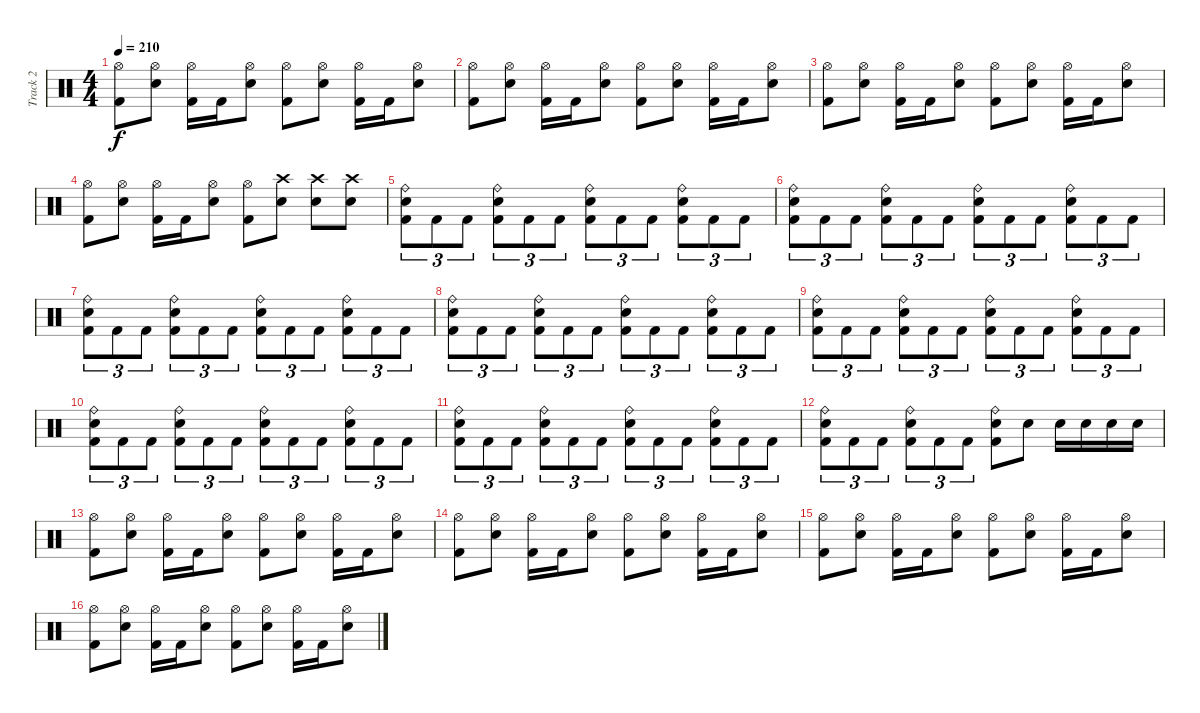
\track ("Track 2" "Track 2") {instrument percussion}
\staff {score}
\articulation defaults
\ts (4 4)
\tempo 210
\clef neutral
\ks c
("Hi-Hat (open)" "Kick (hit) 2").8{dy f} ("Hi-Hat (open)" "Snare (hit) 2").8 ("Hi-Hat (open)" "Kick (hit) 2").16 "Kick (hit) 2".16 ("Hi-Hat (open)" "Snare (hit) 2").8 ("Hi-Hat (open)" "Kick (hit) 2").8 ("Hi-Hat (open)" "Snare (hit) 2").8 ("Hi-Hat (open)" "Kick (hit) 2").16 "Kick (hit) 2".16 ("Hi-Hat (open)" "Snare (hit) 2").8 |
("Hi-Hat (open)" "Kick (hit) 2").8 ("Hi-Hat (open)" "Snare (hit) 2").8 ("Hi-Hat (open)" "Kick (hit) 2").16 "Kick (hit) 2".16 ("Hi-Hat (open)" "Snare (hit) 2").8 ("Hi-Hat (open)" "Kick (hit) 2").8 ("Hi-Hat (open)" "Snare (hit) 2").8 ("Hi-Hat (open)" "Kick (hit) 2").16 "Kick (hit) 2".16 ("Hi-Hat (open)" "Snare (hit) 2").8 |
("Hi-Hat (open)" "Kick (hit) 2").8 ("Hi-Hat (open)" "Snare (hit) 2").8 ("Hi-Hat (open)" "Kick (hit) 2").16 "Kick (hit) 2".16 ("Hi-Hat (open)" "Snare (hit) 2").8 ("Hi-Hat (open)" "Kick (hit) 2").8 ("Hi-Hat (open)" "Snare (hit) 2").8 ("Hi-Hat (open)" "Kick (hit) 2").16 "Kick (hit) 2".16 ("Hi-Hat (open)" "Snare (hit) 2").8 |
("Hi-Hat (open)" "Kick (hit) 2").8 ("Hi-Hat (open)" "Snare (hit) 2").8 ("Hi-Hat (open)" "Kick (hit) 2").16 "Kick (hit) 2".16 ("Hi-Hat (open)" "Snare (hit) 2").8 ("Hi-Hat (open)" "Kick (hit) 2").8 ("Crash high (hit)" "Snare (hit) 2").8 ("Crash high (hit)" "Snare (hit) 2").8 ("Crash high (hit)" "Snare (hit) 2").8 |
("Ride (bell)" "Snare (hit) 2" "Kick (hit) 2").8{tu (3 2)} "Kick (hit) 2".8{tu (3 2)} "Kick (hit) 2".8{tu (3 2)} ("Ride (bell)" "Snare (hit) 2" "Kick (hit) 2").8{tu (3 2)} "Kick (hit) 2".8{tu (3 2)} "Kick (hit) 2".8{tu (3 2)} ("Ride (bell)" "Snare (hit) 2" "Kick (hit) 2").8{tu (3 2)} "Kick (hit) 2".8{tu (3 2)} "Kick (hit) 2".8{tu (3 2)} ("Ride (bell)" "Snare (hit) 2" "Kick (hit) 2").8{tu (3 2)} "Kick (hit) 2".8{tu (3 2)} "Kick (hit) 2".8{tu (3 2)} |
("Ride (bell)" "Snare (hit) 2" "Kick (hit) 2").8{tu (3 2)} "Kick (hit) 2".8{tu (3 2)} "Kick (hit) 2".8{tu (3 2)} ("Ride (bell)" "Snare (hit) 2" "Kick (hit) 2").8{tu (3 2)} "Kick (hit) 2".8{tu (3 2)} "Kick (hit) 2".8{tu (3 2)} ("Ride (bell)" "Snare (hit) 2" "Kick (hit) 2").8{tu (3 2)} "Kick (hit) 2".8{tu (3 2)} "Kick (hit) 2".8{tu (3 2)} ("Ride (bell)" "Snare (hit) 2" "Kick (hit) 2").8{tu (3 2)} "Kick (hit) 2".8{tu (3 2)} "Kick (hit) 2".8{tu (3 2)} |
("Ride (bell)" "Snare (hit) 2" "Kick (hit) 2").8{tu (3 2)} "Kick (hit) 2".8{tu (3 2)} "Kick (hit) 2".8{tu (3 2)} ("Ride (bell)" "Snare (hit) 2" "Kick (hit) 2").8{tu (3 2)} "Kick (hit) 2".8{tu (3 2)} "Kick (hit) 2".8{tu (3 2)} ("Ride (bell)" "Snare (hit) 2" "Kick (hit) 2").8{tu (3 2)} "Kick (hit) 2".8{tu (3 2)} "Kick (hit) 2".8{tu (3 2)} ("Ride (bell)" "Snare (hit) 2" "Kick (hit) 2").8{tu (3 2)} "Kick (hit) 2".8{tu (3 2)} "Kick (hit) 2".8{tu (3 2)} |
("Ride (bell)" "Snare (hit) 2" "Kick (hit) 2").8{tu (3 2)} "Kick (hit) 2".8{tu (3 2)} "Kick (hit) 2".8{tu (3 2)} ("Ride (bell)" "Snare (hit) 2" "Kick (hit) 2").8{tu (3 2)} "Kick (hit) 2".8{tu (3 2)} "Kick (hit) 2".8{tu (3 2)} ("Ride (bell)" "Snare (hit) 2" "Kick (hit) 2").8{tu (3 2)} "Kick (hit) 2".8{tu (3 2)} "Kick (hit) 2".8{tu (3 2)} ("Ride (bell)" "Snare (hit) 2" "Kick (hit) 2").8{tu (3 2)} "Kick (hit) 2".8{tu (3 2)} "Kick (hit) 2".8{tu (3 2)} |
("Ride (bell)" "Snare (hit) 2" "Kick (hit) 2").8{tu (3 2)} "Kick (hit) 2".8{tu (3 2)} "Kick (hit) 2".8{tu (3 2)} ("Ride (bell)" "Snare (hit) 2" "Kick (hit) 2").8{tu (3 2)} "Kick (hit) 2".8{tu (3 2)} "Kick (hit) 2".8{tu (3 2)} ("Ride (bell)" "Snare (hit) 2" "Kick (hit) 2").8{tu (3 2)} "Kick (hit) 2".8{tu (3 2)} "Kick (hit) 2".8{tu (3 2)} ("Ride (bell)" "Snare (hit) 2" "Kick (hit) 2").8{tu (3 2)} "Kick (hit) 2".8{tu (3 2)} "Kick (hit) 2".8{tu (3 2)} |
("Ride (bell)" "Snare (hit) 2" "Kick (hit) 2").8{tu (3 2)} "Kick (hit) 2".8{tu (3 2)} "Kick (hit) 2".8{tu (3 2)} ("Ride (bell)" "Snare (hit) 2" "Kick (hit) 2").8{tu (3 2)} "Kick (hit) 2".8{tu (3 2)} "Kick (hit) 2".8{tu (3 2)} ("Ride (bell)" "Snare (hit) 2" "Kick (hit) 2").8{tu (3 2)} "Kick (hit) 2".8{tu (3 2)} "Kick (hit) 2".8{tu (3 2)} ("Ride (bell)" "Snare (hit) 2" "Kick (hit) 2").8{tu (3 2)} "Kick (hit) 2".8{tu (3 2)} "Kick (hit) 2".8{tu (3 2)} |
("Ride (bell)" "Snare (hit) 2" "Kick (hit) 2").8{tu (3 2)} "Kick (hit) 2".8{tu (3 2)} "Kick (hit) 2".8{tu (3 2)} ("Ride (bell)" "Snare (hit) 2" "Kick (hit) 2").8{tu (3 2)} "Kick (hit) 2".8{tu (3 2)} "Kick (hit) 2".8{tu (3 2)} ("Ride (bell)" "Snare (hit) 2" "Kick (hit) 2").8{tu (3 2)} "Kick (hit) 2".8{tu (3 2)} "Kick (hit) 2".8{tu (3 2)} ("Ride (bell)" "Snare (hit) 2" "Kick (hit) 2").8{tu (3 2)} "Kick (hit) 2".8{tu (3 2)} "Kick (hit) 2".8{tu (3 2)} |
("Ride (bell)" "Snare (hit) 2" "Kick (hit) 2").8{tu (3 2)} "Kick (hit) 2".8{tu (3 2)} "Kick (hit) 2".8{tu (3 2)} ("Ride (bell)" "Snare (hit) 2" "Kick (hit) 2").8{tu (3 2)} "Kick (hit) 2".8{tu (3 2)} "Kick (hit) 2".8{tu (3 2)} ("Ride (bell)" "Snare (hit) 2" "Kick (hit) 2").8 "Snare (hit) 2".8 "Snare (hit) 2".16 "Snare (hit) 2".16 "Snare (hit) 2".16 "Snare (hit) 2".16 |
("Hi-Hat (open)" "Kick (hit) 2").8 ("Hi-Hat (open)" "Snare (hit) 2").8 ("Hi-Hat (open)" "Kick (hit) 2").16 "Kick (hit) 2".16 ("Hi-Hat (open)" "Snare (hit) 2").8 ("Hi-Hat (open)" "Kick (hit) 2").8 ("Hi-Hat (open)" "Snare (hit) 2").8 ("Hi-Hat (open)" "Kick (hit) 2").16 "Kick (hit) 2".16 ("Hi-Hat (open)" "Snare (hit) 2").8 |
("Hi-Hat (open)" "Kick (hit) 2").8 ("Hi-Hat (open)" "Snare (hit) 2").8 ("Hi-Hat (open)" "Kick (hit) 2").16 "Kick (hit) 2".16 ("Hi-Hat (open)" "Snare (hit) 2").8 ("Hi-Hat (open)" "Kick (hit) 2").8 ("Hi-Hat (open)" "Snare (hit) 2").8 ("Hi-Hat (open)" "Kick (hit) 2").16 "Kick (hit) 2".16 ("Hi-Hat (open)" "Snare (hit) 2").8 |
("Hi-Hat (open)" "Kick (hit) 2").8 ("Hi-Hat (open)" "Snare (hit) 2").8 ("Hi-Hat (open)" "Kick (hit) 2").16 "Kick (hit) 2".16 ("Hi-Hat (open)" "Snare (hit) 2").8 ("Hi-Hat (open)" "Kick (hit) 2").8 ("Hi-Hat (open)" "Snare (hit) 2").8 ("Hi-Hat (open)" "Kick (hit) 2").16 "Kick (hit) 2".16 ("Hi-Hat (open)" "Snare (hit) 2").8 |
("Hi-Hat (open)" "Kick (hit) 2").8 ("Hi-Hat (open)" "Snare (hit) 2").8 ("Hi-Hat (open)" "Kick (hit) 2").16 "Kick (hit) 2".16 ("Hi-Hat (open)" "Snare (hit) 2").8 ("Hi-Hat (open)" "Kick (hit) 2").8 ("Hi-Hat (open)" "Snare (hit) 2").8 ("Hi-Hat (open)" "Kick (hit) 2").16 "Kick (hit) 2".16 ("Hi-Hat (open)" "Snare (hit) 2").8
